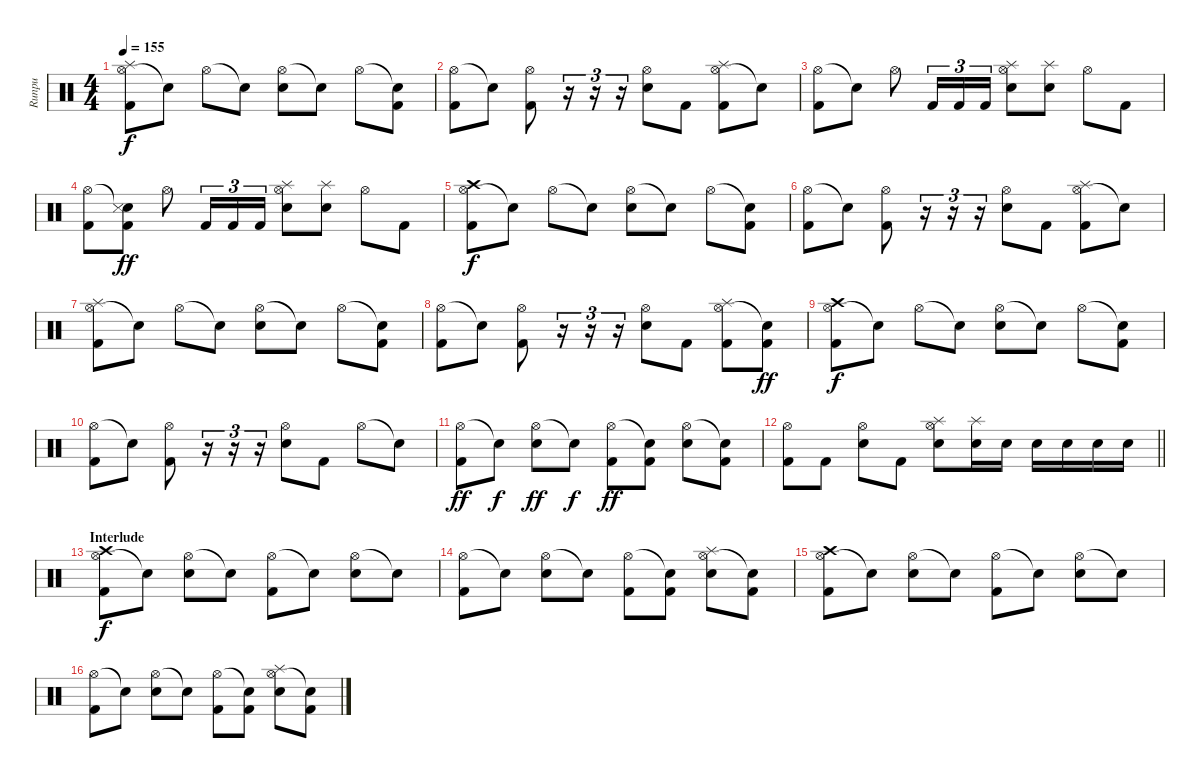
\track ("Runpu" "Runpu") {instrument percussion}
\staff {score}
\articulation defaults
\ts (4 4)
\tempo 155
\clef neutral
\ks c
("Hi-Hat (open)" "Splash (hit)" "Kick (hit) 2").8{dy f} "Snare (hit)"{t}.8 "Hi-Hat (open)".8 "Snare (hit)"{t}.8 ("Hi-Hat (open)" "Snare (hit) 2").8 "Snare (hit)"{t}.8 "Hi-Hat (open)".8 ("Snare (hit)"{t} "Kick (hit) 2").8 |
("Hi-Hat (open)" "Kick (hit) 2").8 "Snare (hit)"{t}.8 ("Hi-Hat (open)" "Kick (hit) 2").8 r.16{tu (3 2)} r.16{tu (3 2)} r.16{tu (3 2)} ("Hi-Hat (open)" "Snare (hit) 2").8 "Kick (hit) 2".8 ("Hi-Hat (open)" "Splash (hit)" "Kick (hit) 2").8 "Snare (hit)"{t}.8 |
("Hi-Hat (open)" "Kick (hit) 2").8 "Snare (hit)"{t}.8 "Hi-Hat (open)".8 "Kick (hit) 2".16{tu (3 2)} "Kick (hit) 2".16{tu (3 2)} "Kick (hit) 2".16{tu (3 2)} ("Hi-Hat (open)" "Splash (hit)" "Snare (hit) 2").8 ("Splash (hit)" "Snare (hit) 2").8 "Hi-Hat (open)".8 "Kick (hit) 2".8 |
("Hi-Hat (open)" "Kick (hit) 2").8 ("Snare (hit)"{t} "Snare (side stick) 3" "Kick (hit) 2").8{dy ff} "Hi-Hat (open)".8 "Kick (hit) 2".16{tu (3 2)} "Kick (hit) 2".16{tu (3 2)} "Kick (hit) 2".16{tu (3 2)} ("Hi-Hat (open)" "Splash (hit)" "Snare (hit) 2").8 ("Splash (hit)" "Snare (hit) 2").8 "Hi-Hat (open)".8 "Kick (hit) 2".8 |
("Hi-Hat (open)" "Crash high (hit)" "Kick (hit) 2").8{dy f} "Snare (hit)"{t}.8 "Hi-Hat (open)".8 "Snare (hit)"{t}.8 ("Hi-Hat (open)" "Snare (hit) 2").8 "Snare (hit)"{t}.8 "Hi-Hat (open)".8 ("Snare (hit)"{t} "Kick (hit) 2").8 |
("Hi-Hat (open)" "Kick (hit) 2").8 "Snare (hit)"{t}.8 ("Hi-Hat (open)" "Kick (hit) 2").8 r.16{tu (3 2)} r.16{tu (3 2)} r.16{tu (3 2)} ("Hi-Hat (open)" "Snare (hit) 2").8 "Kick (hit) 2".8 ("Hi-Hat (open)" "Splash (hit)" "Kick (hit) 2").8 "Snare (hit)"{t}.8 |
("Hi-Hat (open)" "Splash (hit)" "Kick (hit) 2").8 "Snare (hit)"{t}.8 "Hi-Hat (open)".8 "Snare (hit)"{t}.8 ("Hi-Hat (open)" "Snare (hit) 2").8 "Snare (hit)"{t}.8 "Hi-Hat (open)".8 ("Snare (hit)"{t} "Kick (hit) 2").8 |
("Hi-Hat (open)" "Kick (hit) 2").8 "Snare (hit)"{t}.8 ("Hi-Hat (open)" "Kick (hit) 2").8 r.16{tu (3 2)} r.16{tu (3 2)} r.16{tu (3 2)} ("Hi-Hat (open)" "Snare (hit) 2").8 "Kick (hit) 2".8 ("Hi-Hat (open)" "Splash (hit)" "Kick (hit) 2").8 ("Snare (hit)"{t} "Kick (hit) 2").8{dy ff} |
("Hi-Hat (open)" "Crash high (hit)" "Kick (hit) 2").8{dy f} "Snare (hit)"{t}.8 "Hi-Hat (open)".8 "Snare (hit)"{t}.8 ("Hi-Hat (open)" "Snare (hit) 2").8 "Snare (hit)"{t}.8 "Hi-Hat (open)".8 ("Snare (hit)"{t} "Kick (hit) 2").8 |
("Hi-Hat (open)" "Kick (hit) 2").8 "Snare (hit)"{t}.8 ("Hi-Hat (open)" "Kick (hit) 2").8 r.16{tu (3 2)} r.16{tu (3 2)} r.16{tu (3 2)} ("Hi-Hat (open)" "Snare (hit) 2").8 "Kick (hit) 2".8 "Hi-Hat (open)".8 "Snare (hit)"{t}.8 |
("Hi-Hat (open)" "Kick (hit) 2").8{dy ff} "Snare (hit)"{t}.8{dy f} ("Hi-Hat (open)" "Snare (hit) 2").8{dy ff} "Snare (hit)"{t}.8{dy f} ("Hi-Hat (open)" "Kick (hit) 2").8{dy ff} ("Snare (hit)"{t} "Kick (hit) 2").8 ("Hi-Hat (open)" "Snare (hit) 2").8 ("Snare (hit)"{t} "Kick (hit) 2").8 |
\barLineRight lightlight
("Hi-Hat (open)" "Kick (hit) 2").8 "Kick (hit) 2".8 ("Hi-Hat (open)" "Snare (hit) 2").8 "Kick (hit) 2".8 ("Hi-Hat (open)" "Splash (hit)" "Snare (hit) 2").8 ("Splash (hit)" "Snare (hit) 2").16 "Snare (hit) 2".16 "Snare (hit) 2".16 "Snare (hit) 2".16 "Snare (hit) 2".16 "Snare (hit) 2".16 |
\section ("" "Interlude")
("Hi-Hat (open)" "Crash high (hit)" "Kick (hit) 2").8{dy f} "Snare (hit)"{t}.8 ("Hi-Hat (open)" "Snare (hit) 2").8 "Snare (hit)"{t}.8 ("Hi-Hat (open)" "Kick (hit) 2").8 "Snare (hit)"{t}.8 ("Hi-Hat (open)" "Snare (hit) 2").8 "Snare (hit)"{t}.8 |
("Hi-Hat (open)" "Kick (hit) 2").8 "Snare (hit)"{t}.8 ("Hi-Hat (open)" "Snare (hit) 2").8 "Snare (hit)"{t}.8 ("Hi-Hat (open)" "Kick (hit) 2").8 ("Snare (hit)"{t} "Kick (hit) 2").8 ("Hi-Hat (open)" "Splash (hit)" "Snare (hit) 2").8 ("Snare (hit)"{t} "Kick (hit) 2").8 |
("Hi-Hat (open)" "Crash high (hit)" "Kick (hit) 2").8 "Snare (hit)"{t}.8 ("Hi-Hat (open)" "Snare (hit) 2").8 "Snare (hit)"{t}.8 ("Hi-Hat (open)" "Kick (hit) 2").8 "Snare (hit)"{t}.8 ("Hi-Hat (open)" "Snare (hit) 2").8 "Snare (hit)"{t}.8 |
("Hi-Hat (open)" "Kick (hit) 2").8 "Snare (hit)"{t}.8 ("Hi-Hat (open)" "Snare (hit) 2").8 "Snare (hit)"{t}.8 ("Hi-Hat (open)" "Kick (hit) 2").8 ("Snare (hit)"{t} "Kick (hit) 2").8 ("Hi-Hat (open)" "Splash (hit)" "Snare (hit) 2").8 ("Snare (hit)"{t} "Kick (hit) 2").8
